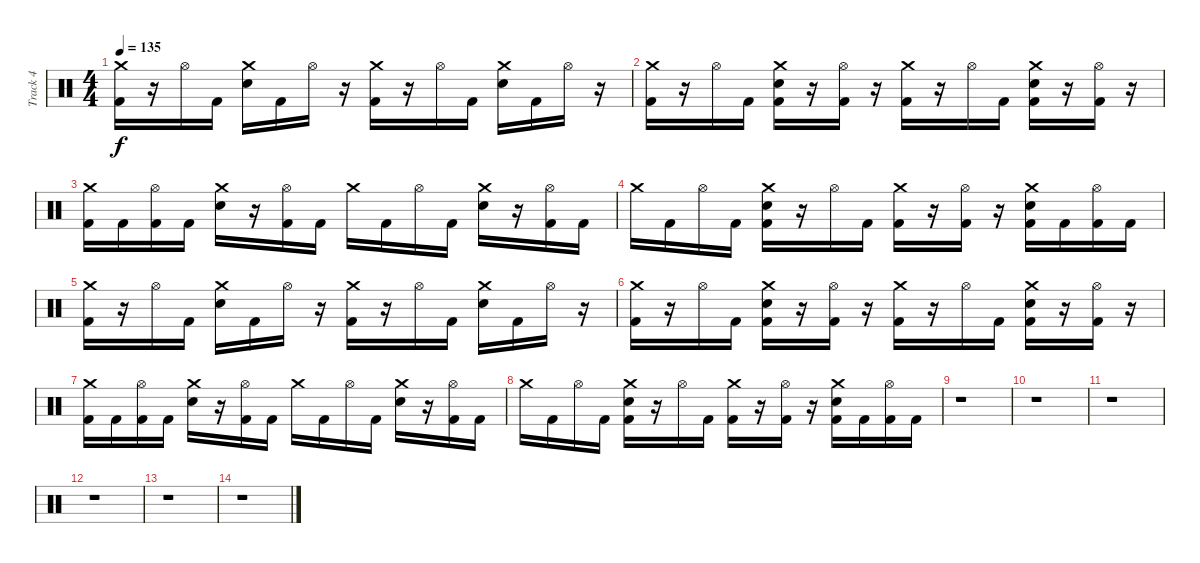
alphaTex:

\track ("Track 4" "Track 4") {instrument percussion}
\staff {score}
\articulation defaults
\ts (4 4)
\tempo 135
\clef neutral
\ks c
("Crash medium (hit)" "Kick (hit) 2").16{dy f} r.16 "Hi-Hat (open)".16 "Kick (hit) 2".16 ("Crash medium (hit)" "Electric Snare (hit)").16 "Kick (hit) 2".16 "Hi-Hat (open)".16 r.16 ("Crash medium (hit)" "Kick (hit) 2").16 r.16 "Hi-Hat (open)".16 "Kick (hit) 2".16 ("Crash medium (hit)" "Electric Snare (hit)").16 "Kick (hit) 2".16 "Hi-Hat (open)".16 r.16 |
("Crash medium (hit)" "Kick (hit) 2").16 r.16 "Hi-Hat (open)".16 "Kick (hit) 2".16 ("Crash medium (hit)" "Electric Snare (hit)" "Kick (hit) 2").16 r.16 ("Hi-Hat (open)" "Kick (hit) 2").16 r.16 ("Crash medium (hit)" "Kick (hit) 2").16 r.16 "Hi-Hat (open)".16 "Kick (hit) 2".16 ("Crash medium (hit)" "Electric Snare (hit)" "Kick (hit) 2").16 r.16 ("Hi-Hat (open)" "Kick (hit) 2").16 r.16 |
("Crash medium (hit)" "Kick (hit) 2").16 "Kick (hit) 2".16 ("Hi-Hat (open)" "Kick (hit) 2").16 "Kick (hit) 2".16 ("Crash medium (hit)" "Electric Snare (hit)").16 r.16 ("Hi-Hat (open)" "Kick (hit) 2").16 "Kick (hit) 2".16 "Crash medium (hit)".16 "Kick (hit) 2".16 "Hi-Hat (open)".16 "Kick (hit) 2".16 ("Crash medium (hit)" "Electric Snare (hit)").16 r.16 ("Hi-Hat (open)" "Kick (hit) 2").16 "Kick (hit) 2".16 |
"Crash medium (hit)".16 "Kick (hit) 2".16 "Hi-Hat (open)".16 "Kick (hit) 2".16 ("Crash medium (hit)" "Electric Snare (hit)" "Kick (hit) 2").16 r.16 "Hi-Hat (open)".16 "Kick (hit) 2".16 ("Crash medium (hit)" "Kick (hit) 2").16 r.16 ("Hi-Hat (open)" "Kick (hit) 2").16 r.16 ("Crash medium (hit)" "Electric Snare (hit)" "Kick (hit) 2").16 "Kick (hit) 2".16 ("Hi-Hat (open)" "Kick (hit) 2").16 "Kick (hit) 2".16 |
("Crash medium (hit)" "Kick (hit) 2").16 r.16 "Hi-Hat (open)".16 "Kick (hit) 2".16 ("Crash medium (hit)" "Electric Snare (hit)").16 "Kick (hit) 2".16 "Hi-Hat (open)".16 r.16 ("Crash medium (hit)" "Kick (hit) 2").16 r.16 "Hi-Hat (open)".16 "Kick (hit) 2".16 ("Crash medium (hit)" "Electric Snare (hit)").16 "Kick (hit) 2".16 "Hi-Hat (open)".16 r.16 |
("Crash medium (hit)" "Kick (hit) 2").16 r.16 "Hi-Hat (open)".16 "Kick (hit) 2".16 ("Crash medium (hit)" "Electric Snare (hit)" "Kick (hit) 2").16 r.16 ("Hi-Hat (open)" "Kick (hit) 2").16 r.16 ("Crash medium (hit)" "Kick (hit) 2").16 r.16 "Hi-Hat (open)".16 "Kick (hit) 2".16 ("Crash medium (hit)" "Electric Snare (hit)" "Kick (hit) 2").16 r.16 ("Hi-Hat (open)" "Kick (hit) 2").16 r.16 |
("Crash medium (hit)" "Kick (hit) 2").16 "Kick (hit) 2".16 ("Hi-Hat (open)" "Kick (hit) 2").16 "Kick (hit) 2".16 ("Crash medium (hit)" "Electric Snare (hit)").16 r.16 ("Hi-Hat (open)" "Kick (hit) 2").16 "Kick (hit) 2".16 "Crash medium (hit)".16 "Kick (hit) 2".16 "Hi-Hat (open)".16 "Kick (hit) 2".16 ("Crash medium (hit)" "Electric Snare (hit)").16 r.16 ("Hi-Hat (open)" "Kick (hit) 2").16 "Kick (hit) 2".16 |
"Crash medium (hit)".16 "Kick (hit) 2".16 "Hi-Hat (open)".16 "Kick (hit) 2".16 ("Crash medium (hit)" "Electric Snare (hit)" "Kick (hit) 2").16 r.16 "Hi-Hat (open)".16 "Kick (hit) 2".16 ("Crash medium (hit)" "Kick (hit) 2").16 r.16 ("Hi-Hat (open)" "Kick (hit) 2").16 r.16 ("Crash medium (hit)" "Electric Snare (hit)" "Kick (hit) 2").16 "Kick (hit) 2".16 ("Hi-Hat (open)" "Kick (hit) 2").16 "Kick (hit) 2".16 |
r.1 |
r.1 |
r.1 |
r.1 |
r.1 |
r.1
